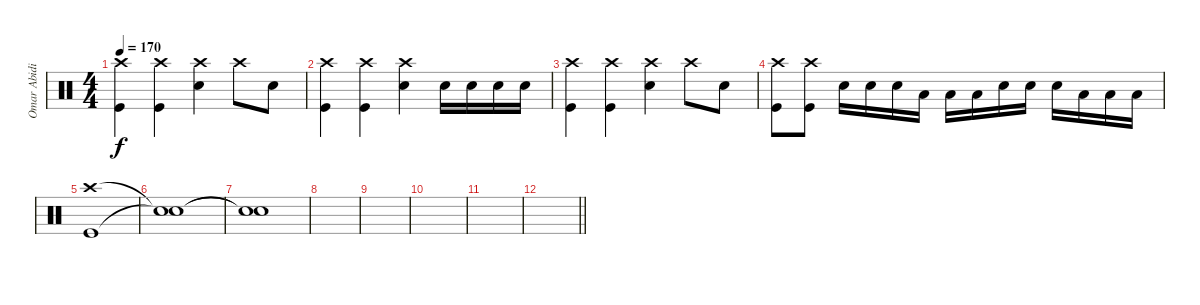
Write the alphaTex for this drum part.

\track ("Omar Abidi" "Omar Abidi") {instrument percussion}
\staff {score}
\articulation defaults
\ts (4 4)
\tempo 170
\clef neutral
\ks c
("Crash high (hit)" "Kick (hit)").4{dy f} ("Crash high (hit)" "Kick (hit)").4 ("Crash high (hit)" "Snare (hit) 2").4 "Crash high (hit)".8 "Snare (hit) 2".8 |
("Crash high (hit)" "Kick (hit)").4 ("Crash high (hit)" "Kick (hit)").4 ("Crash high (hit)" "Snare (hit) 2").4 "Snare (hit) 2".16 "Snare (hit) 2".16 "Snare (hit) 2".16 "Snare (hit) 2".16 |
("Crash high (hit)" "Kick (hit)").4 ("Crash high (hit)" "Kick (hit)").4 ("Crash high (hit)" "Snare (hit) 2").4 "Crash high (hit)".8 "Snare (hit) 2".8 |
("Crash high (hit)" "Kick (hit)").8 ("Crash high (hit)" "Kick (hit)").8 "Snare (hit) 2".16 "Snare (hit) 2".16 "Snare (hit) 2".16 "Low Tom (hit)".16 "Low Tom (hit)".16 "Low Tom (hit)".16 "Snare (hit) 2".16 "Snare (hit) 2".16 "Snare (hit) 2".16 "Low Tom (hit)".16 "Low Tom (hit)".16 "Low Tom (hit)".16 |
("Crash high (hit)" "Kick (hit)").1 |
("Snare (hit)"{t} "Snare (hit)"{t}).1 |
("Snare (hit)"{t} "Snare (hit)"{t}).1 |
|
|
|
|
\barLineRight lightlight
